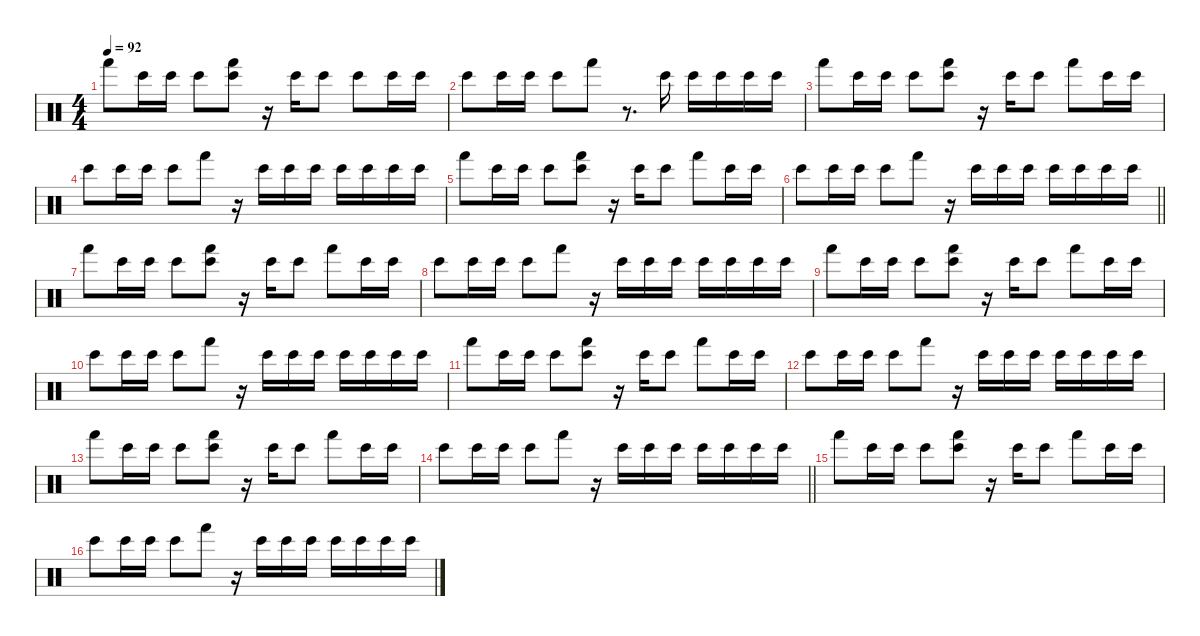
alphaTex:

\defaultSystemsLayout 4
\hideDynamics
\bracketExtendMode nobrackets
\singleTrackTrackNamePolicy hidden
\multiTrackTrackNamePolicy hidden
\firstSystemTrackNameMode fullname
\firstSystemTrackNameOrientation horizontal
\otherSystemsTrackNameOrientation horizontal
\track ("Bill Ward" "drm.") {defaultSystemsLayout 4 instrument percussion}
\staff {score}
\articulation defaults
\ts (4 4)
\tempo 92
\clef neutral
\ks c "Hand (hit)".8{dy f beam Down} "Bongo High (hit)".16{beam Down} "Bongo High (hit)".16{beam Down} "Bongo High (hit)".8{beam Down}
("Bongo High (hit)" "Hand (hit)").8{beam Down} r.16{beam Down} "Bongo High (hit)".16{beam Down} "Bongo High (hit)".8{beam Down} "Bongo High (hit)".8{beam Down} "Bongo High (hit)".16{beam Down} "Bongo High (hit)".16{beam Down} |
"Bongo High (hit)".8{beam Down} "Bongo High (hit)".16{beam Down} "Bongo High (hit)".16{beam Down} "Bongo High (hit)".8{beam Down} "Hand (hit)".8{beam Down} r.8{d beam Down} "Bongo High (hit)".16{beam Down} "Bongo High (hit)".16{beam Down} "Bongo High (hit)".16{beam Down} "Bongo High (hit)".16{beam Down} "Bongo High (hit)".16{beam Down} |
"Hand (hit)".8{beam Down} "Bongo High (hit)".16{beam Down} "Bongo High (hit)".16{beam Down} "Bongo High (hit)".8{beam Down} ("Bongo High (hit)" "Hand (hit)").8{beam Down} r.16{beam Down} "Bongo High (hit)".16{beam Down} "Bongo High (hit)".8{beam Down} "Hand (hit)".8{beam Down} "Bongo High (hit)".16{beam Down} "Bongo High (hit)".16{beam Down} |
"Bongo High (hit)".8{beam Down} "Bongo High (hit)".16{beam Down} "Bongo High (hit)".16{beam Down} "Bongo High (hit)".8{beam Down} "Hand (hit)".8{beam Down} r.16{beam Down} "Bongo High (hit)".16{beam Down} "Bongo High (hit)".16{beam Down} "Bongo High (hit)".16{beam Down} "Bongo High (hit)".16{beam Down} "Bongo High (hit)".16{beam Down} "Bongo High (hit)".16{beam Down} "Bongo High (hit)".16{beam Down} |
"Hand (hit)".8{beam Down} "Bongo High (hit)".16{beam Down} "Bongo High (hit)".16{beam Down} "Bongo High (hit)".8{beam Down} ("Bongo High (hit)" "Hand (hit)").8{beam Down} r.16{beam Down} "Bongo High (hit)".16{beam Down} "Bongo High (hit)".8{beam Down} "Hand (hit)".8{beam Down} "Bongo High (hit)".16{beam Down} "Bongo High (hit)".16{beam Down} |
\barLineRight lightlight "Bongo High (hit)".8{beam Down} "Bongo High (hit)".16{beam Down} "Bongo High (hit)".16{beam Down} "Bongo High (hit)".8{beam Down} "Hand (hit)".8{beam Down}
r.16{beam Down} "Bongo High (hit)".16{beam Down} "Bongo High (hit)".16{beam Down} "Bongo High (hit)".16{beam Down} "Bongo High (hit)".16{beam Down} "Bongo High (hit)".16{beam Down} "Bongo High (hit)".16{beam Down} "Bongo High (hit)".16{beam Down} |
"Hand (hit)".8{beam Down} "Bongo High (hit)".16{beam Down} "Bongo High (hit)".16{beam Down} "Bongo High (hit)".8{beam Down} ("Bongo High (hit)" "Hand (hit)").8{beam Down} r.16{beam Down} "Bongo High (hit)".16{beam Down} "Bongo High (hit)".8{beam Down} "Hand (hit)".8{beam Down} "Bongo High (hit)".16{beam Down} "Bongo High (hit)".16{beam Down} |
"Bongo High (hit)".8{beam Down} "Bongo High (hit)".16{beam Down} "Bongo High (hit)".16{beam Down} "Bongo High (hit)".8{beam Down} "Hand (hit)".8{beam Down} r.16{beam Down} "Bongo High (hit)".16{beam Down} "Bongo High (hit)".16{beam Down} "Bongo High (hit)".16{beam Down} "Bongo High (hit)".16{beam Down} "Bongo High (hit)".16{beam Down} "Bongo High (hit)".16{beam Down} "Bongo High (hit)".16{beam Down} |
"Hand (hit)".8{beam Down} "Bongo High (hit)".16{beam Down} "Bongo High (hit)".16{beam Down} "Bongo High (hit)".8{beam Down} ("Bongo High (hit)" "Hand (hit)").8{beam Down} r.16{beam Down} "Bongo High (hit)".16{beam Down} "Bongo High (hit)".8{beam Down} "Hand (hit)".8{beam Down} "Bongo High (hit)".16{beam Down} "Bongo High (hit)".16{beam Down} |
"Bongo High (hit)".8{beam Down} "Bongo High (hit)".16{beam Down} "Bongo High (hit)".16{beam Down} "Bongo High (hit)".8{beam Down} "Hand (hit)".8{beam Down} r.16{beam Down} "Bongo High (hit)".16{beam Down} "Bongo High (hit)".16{beam Down} "Bongo High (hit)".16{beam Down} "Bongo High (hit)".16{beam Down} "Bongo High (hit)".16{beam Down} "Bongo High (hit)".16{beam Down} "Bongo High (hit)".16{beam Down} |
"Hand (hit)".8{beam Down} "Bongo High (hit)".16{beam Down} "Bongo High (hit)".16{beam Down} "Bongo High (hit)".8{beam Down} ("Bongo High (hit)" "Hand (hit)").8{beam Down} r.16{beam Down} "Bongo High (hit)".16{beam Down} "Bongo High (hit)".8{beam Down} "Hand (hit)".8{beam Down} "Bongo High (hit)".16{beam Down} "Bongo High (hit)".16{beam Down} |
"Bongo High (hit)".8{beam Down} "Bongo High (hit)".16{beam Down} "Bongo High (hit)".16{beam Down} "Bongo High (hit)".8{beam Down} "Hand (hit)".8{beam Down} r.16{beam Down} "Bongo High (hit)".16{beam Down} "Bongo High (hit)".16{beam Down} "Bongo High (hit)".16{beam Down} "Bongo High (hit)".16{beam Down} "Bongo High (hit)".16{beam Down} "Bongo High (hit)".16{beam Down} "Bongo High (hit)".16{beam Down} |
"Hand (hit)".8{beam Down} "Bongo High (hit)".16{beam Down} "Bongo High (hit)".16{beam Down} "Bongo High (hit)".8{beam Down} ("Bongo High (hit)" "Hand (hit)").8{beam Down} r.16{beam Down} "Bongo High (hit)".16{beam Down} "Bongo High (hit)".8{beam Down} "Hand (hit)".8{beam Down} "Bongo High (hit)".16{beam Down} "Bongo High (hit)".16{beam Down} |
\barLineRight lightlight "Bongo High (hit)".8{beam Down} "Bongo High (hit)".16{beam Down} "Bongo High (hit)".16{beam Down} "Bongo High (hit)".8{beam Down} "Hand (hit)".8{beam Down}
r.16{beam Down} "Bongo High (hit)".16{beam Down} "Bongo High (hit)".16{beam Down} "Bongo High (hit)".16{beam Down} "Bongo High (hit)".16{beam Down} "Bongo High (hit)".16{beam Down} "Bongo High (hit)".16{beam Down} "Bongo High (hit)".16{beam Down} |
"Hand (hit)".8{beam Down} "Bongo High (hit)".16{beam Down} "Bongo High (hit)".16{beam Down} "Bongo High (hit)".8{beam Down} ("Bongo High (hit)" "Hand (hit)").8{beam Down} r.16{beam Down} "Bongo High (hit)".16{beam Down} "Bongo High (hit)".8{beam Down} "Hand (hit)".8{beam Down} "Bongo High (hit)".16{beam Down} "Bongo High (hit)".16{beam Down} |
"Bongo High (hit)".8{beam Down} "Bongo High (hit)".16{beam Down} "Bongo High (hit)".16{beam Down} "Bongo High (hit)".8{beam Down} "Hand (hit)".8{beam Down} r.16{beam Down} "Bongo High (hit)".16{beam Down} "Bongo High (hit)".16{beam Down} "Bongo High (hit)".16{beam Down} "Bongo High (hit)".16{beam Down} "Bongo High (hit)".16{beam Down} "Bongo High (hit)".16{beam Down} "Bongo High (hit)".16{beam Down}
